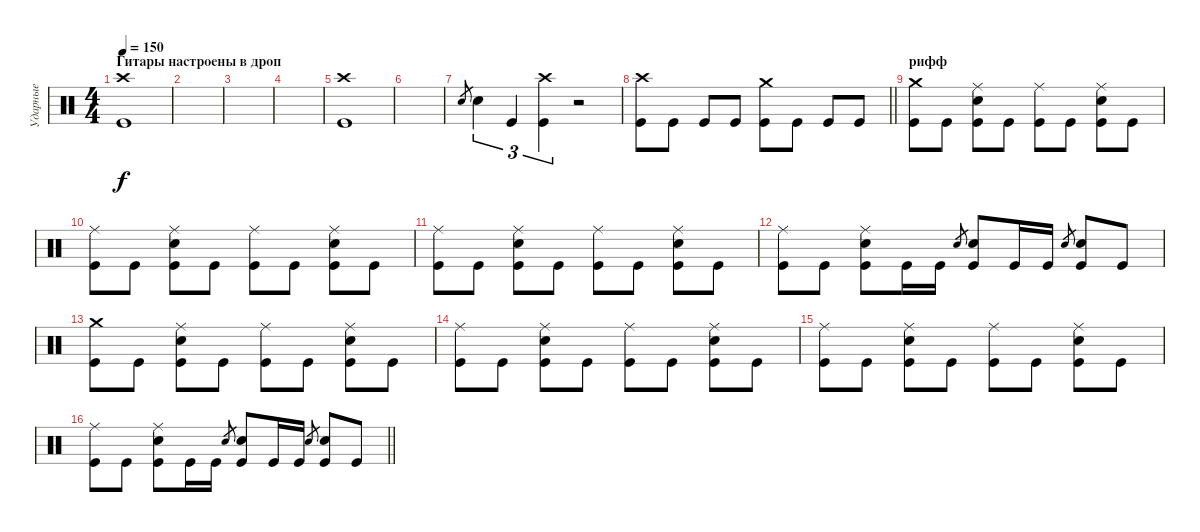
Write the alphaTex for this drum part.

\track ("Ударные" "Ударные") {instrument percussion}
\staff {score}
\articulation defaults
\ts (4 4)
\section ("" "Гитары настроены в дроп")
\tempo 150
\clef neutral
\ks c
("Kick (hit)" "Crash high (hit)").1{dy f} |
|
|
|
("Kick (hit)" "Crash high (hit)").1 |
|
"Electric Snare (hit)".8{gr} "Electric Snare (hit)".4{tu (3 2)} "Kick (hit)".4{tu (3 2)} ("Kick (hit)" "Crash high (hit)").4{tu (3 2)} r.2 |
\barLineRight lightlight
("Crash high (hit)" "Kick (hit)").8 "Kick (hit)".8 "Kick (hit)".8 "Kick (hit)".8 ("Crash medium (hit)" "Kick (hit)").8 "Kick (hit)".8 "Kick (hit)".8 "Kick (hit)".8 |
\section ("" "рифф")
("Kick (hit)" "Crash medium (hit)").8 "Kick (hit)".8 ("Kick (hit)" "Electric Snare (hit)" "Ride (middle)").8 "Kick (hit)".8 ("Kick (hit)" "Ride (middle)").8 "Kick (hit)".8 ("Kick (hit)" "Electric Snare (hit)" "Ride (middle)").8 "Kick (hit)".8 |
("Kick (hit)" "Ride (middle)").8 "Kick (hit)".8 ("Kick (hit)" "Electric Snare (hit)" "Ride (middle)").8 "Kick (hit)".8 ("Kick (hit)" "Ride (middle)").8 "Kick (hit)".8 ("Kick (hit)" "Electric Snare (hit)" "Ride (middle)").8 "Kick (hit)".8 |
("Kick (hit)" "Ride (middle)").8 "Kick (hit)".8 ("Kick (hit)" "Electric Snare (hit)" "Ride (middle)").8 "Kick (hit)".8 ("Kick (hit)" "Ride (middle)").8 "Kick (hit)".8 ("Kick (hit)" "Electric Snare (hit)" "Ride (middle)").8 "Kick (hit)".8 |
("Kick (hit)" "Ride (middle)").8 "Kick (hit)".8 ("Kick (hit)" "Electric Snare (hit)" "Ride (middle)").8 "Kick (hit)".16 "Kick (hit)".16 "Electric Snare (hit)".8{gr} ("Electric Snare (hit)" "Kick (hit)").8 "Kick (hit)".16 "Kick (hit)".16 "Electric Snare (hit)".8{gr} ("Electric Snare (hit)" "Kick (hit)").8 "Kick (hit)".8 |
("Kick (hit)" "Crash medium (hit)").8 "Kick (hit)".8 ("Kick (hit)" "Electric Snare (hit)" "Ride (middle)").8 "Kick (hit)".8 ("Kick (hit)" "Ride (middle)").8 "Kick (hit)".8 ("Kick (hit)" "Electric Snare (hit)" "Ride (middle)").8 "Kick (hit)".8 |
("Kick (hit)" "Ride (middle)").8 "Kick (hit)".8 ("Kick (hit)" "Electric Snare (hit)" "Ride (middle)").8 "Kick (hit)".8 ("Kick (hit)" "Ride (middle)").8 "Kick (hit)".8 ("Kick (hit)" "Electric Snare (hit)" "Ride (middle)").8 "Kick (hit)".8 |
("Kick (hit)" "Ride (middle)").8 "Kick (hit)".8 ("Kick (hit)" "Electric Snare (hit)" "Ride (middle)").8 "Kick (hit)".8 ("Kick (hit)" "Ride (middle)").8 "Kick (hit)".8 ("Kick (hit)" "Electric Snare (hit)" "Ride (middle)").8 "Kick (hit)".8 |
\barLineRight lightlight
("Kick (hit)" "Ride (middle)").8 "Kick (hit)".8 ("Kick (hit)" "Electric Snare (hit)" "Ride (middle)").8 "Kick (hit)".16 "Kick (hit)".16 "Electric Snare (hit)".8{gr} ("Electric Snare (hit)" "Kick (hit)").8 "Kick (hit)".16 "Kick (hit)".16 "Electric Snare (hit)".8{gr} ("Electric Snare (hit)" "Kick (hit)").8 "Kick (hit)".8
